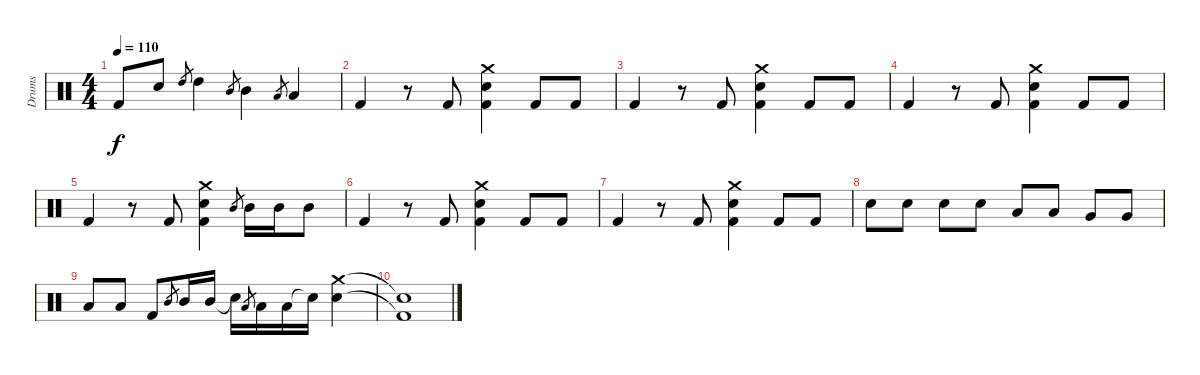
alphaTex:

\track ("Drums" "Drums") {instrument percussion}
\staff {score}
\articulation defaults
\ts (4 4)
\tempo 110
\clef neutral
\ks c "Kick (hit) 2".8{dy f} "Electric Snare (hit)".8 "High Tom (hit)".8{gr} "High Tom (hit)".4 "Mid Tom (hit)".8{gr} "Mid Tom (hit)".4 "Low Tom (hit)".8{gr} "Low Tom (hit)".4
|
"Kick (hit) 2".4 r.8 "Kick (hit) 2".8 ("Crash medium (hit)" "Electric Snare (hit)" "Kick (hit) 2").4 "Kick (hit) 2".8 "Kick (hit) 2".8 |
"Kick (hit) 2".4 r.8 "Kick (hit) 2".8 ("Crash medium (hit)" "Electric Snare (hit)" "Kick (hit) 2").4 "Kick (hit) 2".8 "Kick (hit) 2".8 |
"Kick (hit) 2".4 r.8 "Kick (hit) 2".8 ("Crash medium (hit)" "Electric Snare (hit)" "Kick (hit) 2").4 "Kick (hit) 2".8 "Kick (hit) 2".8 |
"Kick (hit) 2".4 r.8 "Kick (hit) 2".8 ("Crash medium (hit)" "Electric Snare (hit)" "Kick (hit) 2").4 "Mid Tom (hit)".8{gr} "Mid Tom (hit)".16 "Mid Tom (hit)".16 "Mid Tom (hit)".8 |
"Kick (hit) 2".4 r.8 "Kick (hit) 2".8 ("Crash medium (hit)" "Electric Snare (hit)" "Kick (hit) 2").4 "Kick (hit) 2".8 "Kick (hit) 2".8 |
"Kick (hit) 2".4 r.8 "Kick (hit) 2".8 ("Crash medium (hit)" "Electric Snare (hit)" "Kick (hit) 2").4 "Kick (hit) 2".8 "Kick (hit) 2".8 |
"Electric Snare (hit)".8 "Electric Snare (hit)".8 "Snare (hit) 2".8 "Snare (hit) 2".8 "Low Floor Tom (hit)".8 "Low Floor Tom (hit)".8 "Very Low Tom (hit)".8 "Very Low Tom (hit)".8 |
"Low Tom (hit)".8 "Low Tom (hit)".8 "Kick (hit) 2".8 "Mid Tom (hit)".8{gr} "Mid Tom (hit)".16 "Mid Tom (hit)".16 "Snare (hit)"{t}.16 "Low Tom (hit)".8{gr} "Low Tom (hit)".16 "Low Tom (hit)".16 "Snare (hit)"{t}.16 ("Crash medium (hit)" "Electric Snare (hit)").4 |
("Snare (hit)"{t} "Kick (hit) 2"{t}).1
